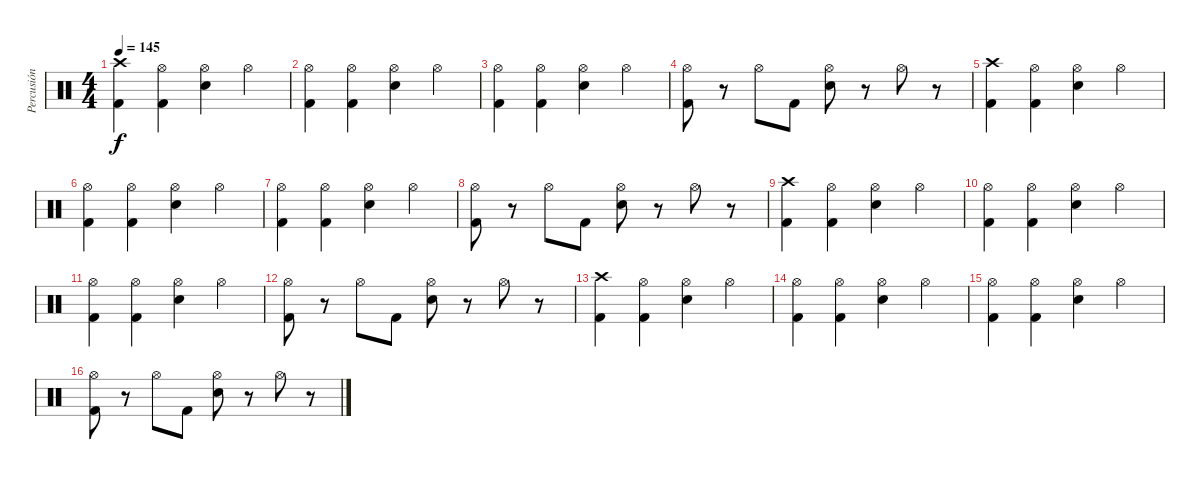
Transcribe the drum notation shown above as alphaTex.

\track ("Percusión" "Percusión") {instrument percussion}
\staff {score}
\articulation defaults
\ts (4 4)
\tempo 145
\clef neutral
\ks c
("Crash high (hit)" "Kick (hit) 2").4{dy f} ("Hi-Hat (open)" "Kick (hit) 2").4 ("Hi-Hat (open)" "Electric Snare (hit)").4 "Hi-Hat (open)".4 |
("Hi-Hat (open)" "Kick (hit) 2").4 ("Hi-Hat (open)" "Kick (hit) 2").4 ("Hi-Hat (open)" "Electric Snare (hit)").4 "Hi-Hat (open)".4 |
("Hi-Hat (open)" "Kick (hit) 2").4 ("Hi-Hat (open)" "Kick (hit) 2").4 ("Hi-Hat (open)" "Electric Snare (hit)").4 "Hi-Hat (open)".4 |
("Hi-Hat (open)" "Kick (hit) 2").8 r.8 "Hi-Hat (open)".8 "Kick (hit) 2".8 ("Hi-Hat (open)" "Electric Snare (hit)").8 r.8 "Hi-Hat (open)".8 r.8 |
("Crash high (hit)" "Kick (hit) 2").4 ("Hi-Hat (open)" "Kick (hit) 2").4 ("Hi-Hat (open)" "Electric Snare (hit)").4 "Hi-Hat (open)".4 |
("Hi-Hat (open)" "Kick (hit) 2").4 ("Hi-Hat (open)" "Kick (hit) 2").4 ("Hi-Hat (open)" "Electric Snare (hit)").4 "Hi-Hat (open)".4 |
("Hi-Hat (open)" "Kick (hit) 2").4 ("Hi-Hat (open)" "Kick (hit) 2").4 ("Hi-Hat (open)" "Electric Snare (hit)").4 "Hi-Hat (open)".4 |
("Hi-Hat (open)" "Kick (hit) 2").8 r.8 "Hi-Hat (open)".8 "Kick (hit) 2".8 ("Hi-Hat (open)" "Electric Snare (hit)").8 r.8 "Hi-Hat (open)".8 r.8 |
("Crash high (hit)" "Kick (hit) 2").4 ("Hi-Hat (open)" "Kick (hit) 2").4 ("Hi-Hat (open)" "Electric Snare (hit)").4 "Hi-Hat (open)".4 |
("Hi-Hat (open)" "Kick (hit) 2").4 ("Hi-Hat (open)" "Kick (hit) 2").4 ("Hi-Hat (open)" "Electric Snare (hit)").4 "Hi-Hat (open)".4 |
("Hi-Hat (open)" "Kick (hit) 2").4 ("Hi-Hat (open)" "Kick (hit) 2").4 ("Hi-Hat (open)" "Electric Snare (hit)").4 "Hi-Hat (open)".4 |
("Hi-Hat (open)" "Kick (hit) 2").8 r.8 "Hi-Hat (open)".8 "Kick (hit) 2".8 ("Hi-Hat (open)" "Electric Snare (hit)").8 r.8 "Hi-Hat (open)".8 r.8 |
("Crash high (hit)" "Kick (hit) 2").4 ("Hi-Hat (open)" "Kick (hit) 2").4 ("Hi-Hat (open)" "Electric Snare (hit)").4 "Hi-Hat (open)".4 |
("Hi-Hat (open)" "Kick (hit) 2").4 ("Hi-Hat (open)" "Kick (hit) 2").4 ("Hi-Hat (open)" "Electric Snare (hit)").4 "Hi-Hat (open)".4 |
("Hi-Hat (open)" "Kick (hit) 2").4 ("Hi-Hat (open)" "Kick (hit) 2").4 ("Hi-Hat (open)" "Electric Snare (hit)").4 "Hi-Hat (open)".4 |
("Hi-Hat (open)" "Kick (hit) 2").8 r.8 "Hi-Hat (open)".8 "Kick (hit) 2".8 ("Hi-Hat (open)" "Electric Snare (hit)").8 r.8 "Hi-Hat (open)".8 r.8
